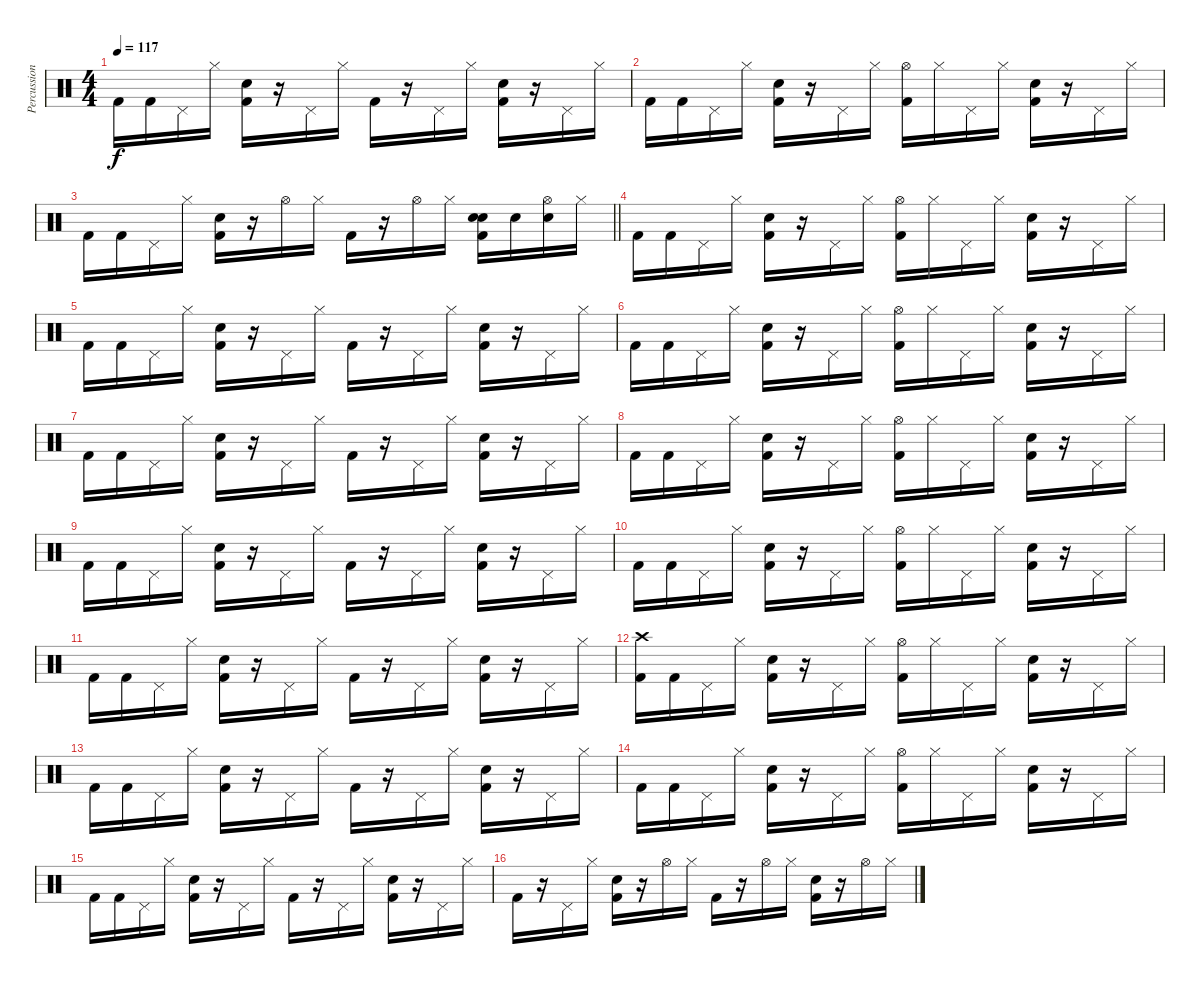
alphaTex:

\track ("Percussion" "Percussion") {instrument percussion}
\staff {score}
\articulation defaults
\ts (4 4)
\tempo 117
\clef neutral
\ks c "Kick (hit) 2".16{dy f} "Kick (hit) 2".16 "Pedal Hi-Hat (hit)".16 "Hi-Hat (closed)".16
("Snare (hit) 2" "Kick (hit) 2").16 r.16 "Pedal Hi-Hat (hit)".16 "Hi-Hat (closed)".16 "Kick (hit) 2".16 r.16 "Pedal Hi-Hat (hit)".16 "Hi-Hat (closed)".16 ("Snare (hit) 2" "Kick (hit) 2").16 r.16 "Pedal Hi-Hat (hit)".16 "Hi-Hat (closed)".16 |
"Kick (hit) 2".16 "Kick (hit) 2".16 "Pedal Hi-Hat (hit)".16 "Hi-Hat (closed)".16 ("Snare (hit) 2" "Kick (hit) 2").16 r.16 "Pedal Hi-Hat (hit)".16 "Hi-Hat (closed)".16 ("Hi-Hat (open)" "Kick (hit) 2").16 "Hi-Hat (closed)".16 "Pedal Hi-Hat (hit)".16 "Hi-Hat (closed)".16 ("Snare (hit) 2" "Kick (hit) 2").16 r.16 "Pedal Hi-Hat (hit)".16 "Hi-Hat (closed)".16 |
\barLineRight lightlight "Kick (hit) 2".16 "Kick (hit) 2".16 "Pedal Hi-Hat (hit)".16 "Hi-Hat (closed)".16
("Snare (hit) 2" "Kick (hit) 2").16 r.16 "Hi-Hat (open)".16 "Hi-Hat (closed)".16 "Kick (hit) 2".16 r.16 "Hi-Hat (open)".16 "Hi-Hat (closed)".16 ("Hand Clap (hit)" "Snare (hit) 2" "Kick (hit) 2").16 "Hand Clap (hit)".16 ("Hi-Hat (open)" "Hand Clap (hit)").16 "Hi-Hat (closed)".16 |
"Kick (hit) 2".16 "Kick (hit) 2".16 "Pedal Hi-Hat (hit)".16 "Hi-Hat (closed)".16 ("Snare (hit) 2" "Kick (hit) 2").16 r.16 "Pedal Hi-Hat (hit)".16 "Hi-Hat (closed)".16 ("Hi-Hat (open)" "Kick (hit) 2").16 "Hi-Hat (closed)".16 "Pedal Hi-Hat (hit)".16 "Hi-Hat (closed)".16 ("Snare (hit) 2" "Kick (hit) 2").16 r.16 "Pedal Hi-Hat (hit)".16 "Hi-Hat (closed)".16 |
"Kick (hit) 2".16 "Kick (hit) 2".16 "Pedal Hi-Hat (hit)".16 "Hi-Hat (closed)".16 ("Snare (hit) 2" "Kick (hit) 2").16 r.16 "Pedal Hi-Hat (hit)".16 "Hi-Hat (closed)".16 "Kick (hit) 2".16 r.16 "Pedal Hi-Hat (hit)".16 "Hi-Hat (closed)".16 ("Snare (hit) 2" "Kick (hit) 2").16 r.16 "Pedal Hi-Hat (hit)".16 "Hi-Hat (closed)".16 |
"Kick (hit) 2".16 "Kick (hit) 2".16 "Pedal Hi-Hat (hit)".16 "Hi-Hat (closed)".16 ("Snare (hit) 2" "Kick (hit) 2").16 r.16 "Pedal Hi-Hat (hit)".16 "Hi-Hat (closed)".16 ("Hi-Hat (open)" "Kick (hit) 2").16 "Hi-Hat (closed)".16 "Pedal Hi-Hat (hit)".16 "Hi-Hat (closed)".16 ("Snare (hit) 2" "Kick (hit) 2").16 r.16 "Pedal Hi-Hat (hit)".16 "Hi-Hat (closed)".16 |
"Kick (hit) 2".16 "Kick (hit) 2".16 "Pedal Hi-Hat (hit)".16 "Hi-Hat (closed)".16 ("Snare (hit) 2" "Kick (hit) 2").16 r.16 "Pedal Hi-Hat (hit)".16 "Hi-Hat (closed)".16 "Kick (hit) 2".16 r.16 "Pedal Hi-Hat (hit)".16 "Hi-Hat (closed)".16 ("Snare (hit) 2" "Kick (hit) 2").16 r.16 "Pedal Hi-Hat (hit)".16 "Hi-Hat (closed)".16 |
"Kick (hit) 2".16 "Kick (hit) 2".16 "Pedal Hi-Hat (hit)".16 "Hi-Hat (closed)".16 ("Snare (hit) 2" "Kick (hit) 2").16 r.16 "Pedal Hi-Hat (hit)".16 "Hi-Hat (closed)".16 ("Hi-Hat (open)" "Kick (hit) 2").16 "Hi-Hat (closed)".16 "Pedal Hi-Hat (hit)".16 "Hi-Hat (closed)".16 ("Snare (hit) 2" "Kick (hit) 2").16 r.16 "Pedal Hi-Hat (hit)".16 "Hi-Hat (closed)".16 |
"Kick (hit) 2".16 "Kick (hit) 2".16 "Pedal Hi-Hat (hit)".16 "Hi-Hat (closed)".16 ("Snare (hit) 2" "Kick (hit) 2").16 r.16 "Pedal Hi-Hat (hit)".16 "Hi-Hat (closed)".16 "Kick (hit) 2".16 r.16 "Pedal Hi-Hat (hit)".16 "Hi-Hat (closed)".16 ("Snare (hit) 2" "Kick (hit) 2").16 r.16 "Pedal Hi-Hat (hit)".16 "Hi-Hat (closed)".16 |
"Kick (hit) 2".16 "Kick (hit) 2".16 "Pedal Hi-Hat (hit)".16 "Hi-Hat (closed)".16 ("Snare (hit) 2" "Kick (hit) 2").16 r.16 "Pedal Hi-Hat (hit)".16 "Hi-Hat (closed)".16 ("Hi-Hat (open)" "Kick (hit) 2").16 "Hi-Hat (closed)".16 "Pedal Hi-Hat (hit)".16 "Hi-Hat (closed)".16 ("Snare (hit) 2" "Kick (hit) 2").16 r.16 "Pedal Hi-Hat (hit)".16 "Hi-Hat (closed)".16 |
"Kick (hit) 2".16 "Kick (hit) 2".16 "Pedal Hi-Hat (hit)".16 "Hi-Hat (closed)".16 ("Snare (hit) 2" "Kick (hit) 2").16 r.16 "Pedal Hi-Hat (hit)".16 "Hi-Hat (closed)".16 "Kick (hit) 2".16 r.16 "Pedal Hi-Hat (hit)".16 "Hi-Hat (closed)".16 ("Snare (hit) 2" "Kick (hit) 2").16 r.16 "Pedal Hi-Hat (hit)".16 "Hi-Hat (closed)".16 |
("Crash high (hit)" "Kick (hit) 2").16 "Kick (hit) 2".16 "Pedal Hi-Hat (hit)".16 "Hi-Hat (closed)".16 ("Snare (hit) 2" "Kick (hit) 2").16 r.16 "Pedal Hi-Hat (hit)".16 "Hi-Hat (closed)".16 ("Hi-Hat (open)" "Kick (hit) 2").16 "Hi-Hat (closed)".16 "Pedal Hi-Hat (hit)".16 "Hi-Hat (closed)".16 ("Snare (hit) 2" "Kick (hit) 2").16 r.16 "Pedal Hi-Hat (hit)".16 "Hi-Hat (closed)".16 |
"Kick (hit) 2".16 "Kick (hit) 2".16 "Pedal Hi-Hat (hit)".16 "Hi-Hat (closed)".16 ("Snare (hit) 2" "Kick (hit) 2").16 r.16 "Pedal Hi-Hat (hit)".16 "Hi-Hat (closed)".16 "Kick (hit) 2".16 r.16 "Pedal Hi-Hat (hit)".16 "Hi-Hat (closed)".16 ("Snare (hit) 2" "Kick (hit) 2").16 r.16 "Pedal Hi-Hat (hit)".16 "Hi-Hat (closed)".16 |
"Kick (hit) 2".16 "Kick (hit) 2".16 "Pedal Hi-Hat (hit)".16 "Hi-Hat (closed)".16 ("Snare (hit) 2" "Kick (hit) 2").16 r.16 "Pedal Hi-Hat (hit)".16 "Hi-Hat (closed)".16 ("Hi-Hat (open)" "Kick (hit) 2").16 "Hi-Hat (closed)".16 "Pedal Hi-Hat (hit)".16 "Hi-Hat (closed)".16 ("Snare (hit) 2" "Kick (hit) 2").16 r.16 "Pedal Hi-Hat (hit)".16 "Hi-Hat (closed)".16 |
"Kick (hit) 2".16 "Kick (hit) 2".16 "Pedal Hi-Hat (hit)".16 "Hi-Hat (closed)".16 ("Snare (hit) 2" "Kick (hit) 2").16 r.16 "Pedal Hi-Hat (hit)".16 "Hi-Hat (closed)".16 "Kick (hit) 2".16 r.16 "Pedal Hi-Hat (hit)".16 "Hi-Hat (closed)".16 ("Snare (hit) 2" "Kick (hit) 2").16 r.16 "Pedal Hi-Hat (hit)".16 "Hi-Hat (closed)".16 |
"Kick (hit) 2".16 r.16 "Pedal Hi-Hat (hit)".16 "Hi-Hat (closed)".16 ("Snare (hit) 2" "Kick (hit) 2").16 r.16 "Hi-Hat (open)".16 "Hi-Hat (closed)".16 "Kick (hit) 2".16 r.16 "Hi-Hat (open)".16 "Hi-Hat (closed)".16 ("Snare (hit) 2" "Kick (hit) 2").16 r.16 "Hi-Hat (open)".16 "Hi-Hat (closed)".16
